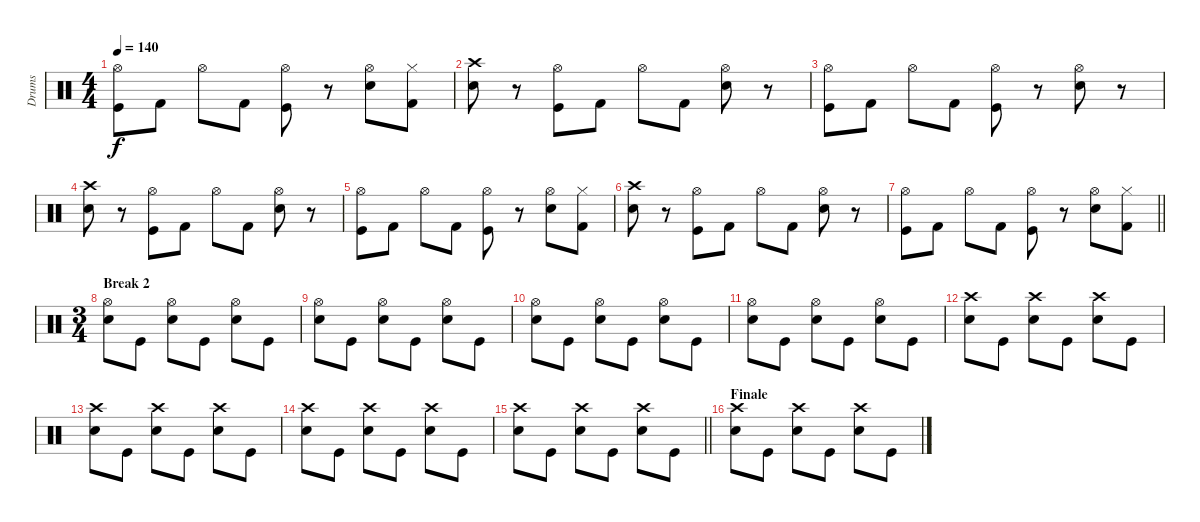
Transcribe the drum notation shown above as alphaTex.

\track ("Drums" "Drums") {instrument percussion}
\staff {score}
\articulation defaults
\ts (4 4)
\tempo 140
\clef neutral
\ks c
("Kick (hit)" "Hi-Hat (open)").8{dy f} "Kick (hit) 2".8 "Hi-Hat (open)".8 "Kick (hit) 2".8 ("Kick (hit)" "Hi-Hat (open)").8 r.8 ("Snare (hit) 2" "Hi-Hat (open)").8 ("Kick (hit) 2" "Hi-Hat (closed)").8 |
("Snare (hit) 2" "Crash high (hit)").8 r.8 ("Kick (hit)" "Hi-Hat (open)").8 "Kick (hit) 2".8 "Hi-Hat (open)".8 "Kick (hit) 2".8 ("Snare (hit) 2" "Hi-Hat (open)").8 r.8 |
("Kick (hit)" "Hi-Hat (open)").8 "Kick (hit) 2".8 "Hi-Hat (open)".8 "Kick (hit) 2".8 ("Kick (hit)" "Hi-Hat (open)").8 r.8 ("Snare (hit) 2" "Hi-Hat (open)").8 r.8 |
("Snare (hit) 2" "Crash high (hit)").8 r.8 ("Kick (hit)" "Hi-Hat (open)").8 "Kick (hit) 2".8 "Hi-Hat (open)".8 "Kick (hit) 2".8 ("Snare (hit) 2" "Hi-Hat (open)").8 r.8 |
("Kick (hit)" "Hi-Hat (open)").8 "Kick (hit) 2".8 "Hi-Hat (open)".8 "Kick (hit) 2".8 ("Kick (hit)" "Hi-Hat (open)").8 r.8 ("Snare (hit) 2" "Hi-Hat (open)").8 ("Kick (hit) 2" "Hi-Hat (closed)").8 |
("Snare (hit) 2" "Crash high (hit)").8 r.8 ("Kick (hit)" "Hi-Hat (open)").8 "Kick (hit) 2".8 "Hi-Hat (open)".8 "Kick (hit) 2".8 ("Snare (hit) 2" "Hi-Hat (open)").8 r.8 |
\barLineRight lightlight
("Kick (hit)" "Hi-Hat (open)").8 "Kick (hit) 2".8 "Hi-Hat (open)".8 "Kick (hit) 2".8 ("Kick (hit)" "Hi-Hat (open)").8 r.8 ("Snare (hit) 2" "Hi-Hat (open)").8 ("Kick (hit) 2" "Hi-Hat (closed)").8 |
\ts (3 4)
\section ("" "Break 2")
("Hi-Hat (open)" "Snare (hit) 2").8 "Kick (hit)".8 ("Hi-Hat (open)" "Snare (hit) 2").8 "Kick (hit)".8 ("Hi-Hat (open)" "Snare (hit) 2").8 "Kick (hit)".8 |
("Hi-Hat (open)" "Snare (hit) 2").8 "Kick (hit)".8 ("Hi-Hat (open)" "Snare (hit) 2").8 "Kick (hit)".8 ("Hi-Hat (open)" "Snare (hit) 2").8 "Kick (hit)".8 |
("Hi-Hat (open)" "Snare (hit) 2").8 "Kick (hit)".8 ("Hi-Hat (open)" "Snare (hit) 2").8 "Kick (hit)".8 ("Hi-Hat (open)" "Snare (hit) 2").8 "Kick (hit)".8 |
("Hi-Hat (open)" "Snare (hit) 2").8 "Kick (hit)".8 ("Hi-Hat (open)" "Snare (hit) 2").8 "Kick (hit)".8 ("Hi-Hat (open)" "Snare (hit) 2").8 "Kick (hit)".8 |
("Crash high (hit)" "Snare (hit) 2").8 "Kick (hit)".8 ("Crash high (hit)" "Snare (hit) 2").8 "Kick (hit)".8 ("Crash high (hit)" "Snare (hit) 2").8 "Kick (hit)".8 |
("Crash high (hit)" "Snare (hit) 2").8 "Kick (hit)".8 ("Crash high (hit)" "Snare (hit) 2").8 "Kick (hit)".8 ("Crash high (hit)" "Snare (hit) 2").8 "Kick (hit)".8 |
("Crash high (hit)" "Snare (hit) 2").8 "Kick (hit)".8 ("Crash high (hit)" "Snare (hit) 2").8 "Kick (hit)".8 ("Crash high (hit)" "Snare (hit) 2").8 "Kick (hit)".8 |
\barLineRight lightlight
("Crash high (hit)" "Snare (hit) 2").8 "Kick (hit)".8 ("Crash high (hit)" "Snare (hit) 2").8 "Kick (hit)".8 ("Crash high (hit)" "Snare (hit) 2").8 "Kick (hit)".8 |
\section ("" "Finale")
("Crash high (hit)" "Snare (hit) 2").8 "Kick (hit)".8 ("Crash high (hit)" "Snare (hit) 2").8 "Kick (hit)".8 ("Crash high (hit)" "Snare (hit) 2").8 "Kick (hit)".8
